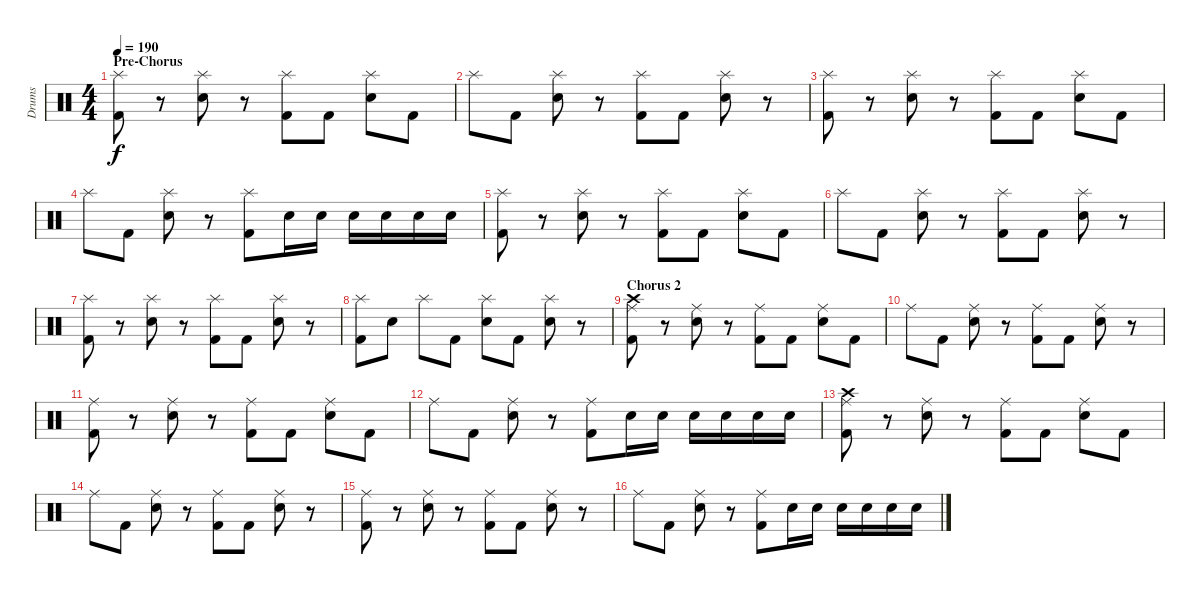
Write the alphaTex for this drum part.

\track ("Drums" "Drums") {instrument percussion}
\staff {score}
\articulation defaults
\ts (4 4)
\section ("" "Pre-Chorus")
\tempo 190
\clef neutral
\ks c
("Splash (hit)" "Kick (hit) 2").8{dy f} r.8 ("Splash (hit)" "Snare (hit) 2").8 r.8 ("Splash (hit)" "Kick (hit) 2").8 "Kick (hit) 2".8 ("Splash (hit)" "Snare (hit) 2").8 "Kick (hit) 2".8 |
"Splash (hit)".8 "Kick (hit) 2".8 ("Splash (hit)" "Snare (hit) 2").8 r.8 ("Splash (hit)" "Kick (hit) 2").8 "Kick (hit) 2".8 ("Splash (hit)" "Snare (hit) 2").8 r.8 |
("Splash (hit)" "Kick (hit) 2").8 r.8 ("Splash (hit)" "Snare (hit) 2").8 r.8 ("Splash (hit)" "Kick (hit) 2").8 "Kick (hit) 2".8 ("Splash (hit)" "Snare (hit) 2").8 "Kick (hit) 2".8 |
"Splash (hit)".8 "Kick (hit) 2".8 ("Splash (hit)" "Snare (hit) 2").8 r.8 ("Splash (hit)" "Kick (hit) 2").8 "Snare (hit) 2".16 "Snare (hit) 2".16 "Snare (hit) 2".16 "Snare (hit) 2".16 "Snare (hit) 2".16 "Snare (hit) 2".16 |
("Splash (hit)" "Kick (hit) 2").8 r.8 ("Splash (hit)" "Snare (hit) 2").8 r.8 ("Splash (hit)" "Kick (hit) 2").8 "Kick (hit) 2".8 ("Splash (hit)" "Snare (hit) 2").8 "Kick (hit) 2".8 |
"Splash (hit)".8 "Kick (hit) 2".8 ("Splash (hit)" "Snare (hit) 2").8 r.8 ("Splash (hit)" "Kick (hit) 2").8 "Kick (hit) 2".8 ("Splash (hit)" "Snare (hit) 2").8 r.8 |
("Splash (hit)" "Kick (hit) 2").8 r.8 ("Splash (hit)" "Snare (hit) 2").8 r.8 ("Splash (hit)" "Kick (hit) 2").8 "Kick (hit) 2".8 ("Splash (hit)" "Snare (hit) 2").8 r.8 |
("Splash (hit)" "Kick (hit) 2").8 "Snare (hit) 2".8 "Splash (hit)".8 "Kick (hit) 2".8 ("Splash (hit)" "Snare (hit) 2").8 "Kick (hit) 2".8 ("Splash (hit)" "Snare (hit) 2").8 r.8 |
\section ("" "Chorus 2")
("Ride (middle)" "Crash high (hit)" "Kick (hit) 2").8 r.8 ("Ride (middle)" "Snare (hit) 2").8 r.8 ("Ride (middle)" "Kick (hit) 2").8 "Kick (hit) 2".8 ("Ride (middle)" "Snare (hit) 2").8 "Kick (hit) 2".8 |
"Ride (middle)".8 "Kick (hit) 2".8 ("Ride (middle)" "Snare (hit) 2").8 r.8 ("Ride (middle)" "Kick (hit) 2").8 "Kick (hit) 2".8 ("Ride (middle)" "Snare (hit) 2").8 r.8 |
("Ride (middle)" "Kick (hit) 2").8 r.8 ("Ride (middle)" "Snare (hit) 2").8 r.8 ("Ride (middle)" "Kick (hit) 2").8 "Kick (hit) 2".8 ("Ride (middle)" "Snare (hit) 2").8 "Kick (hit) 2".8 |
"Ride (middle)".8 "Kick (hit) 2".8 ("Ride (middle)" "Snare (hit) 2").8 r.8 ("Ride (middle)" "Kick (hit) 2").8 "Snare (hit) 2".16 "Snare (hit) 2".16 "Snare (hit) 2".16 "Snare (hit) 2".16 "Snare (hit) 2".16 "Snare (hit) 2".16 |
("Ride (middle)" "Crash high (hit)" "Kick (hit) 2").8 r.8 ("Ride (middle)" "Snare (hit) 2").8 r.8 ("Ride (middle)" "Kick (hit) 2").8 "Kick (hit) 2".8 ("Ride (middle)" "Snare (hit) 2").8 "Kick (hit) 2".8 |
"Ride (middle)".8 "Kick (hit) 2".8 ("Ride (middle)" "Snare (hit) 2").8 r.8 ("Ride (middle)" "Kick (hit) 2").8 "Kick (hit) 2".8 ("Ride (middle)" "Snare (hit) 2").8 r.8 |
("Ride (middle)" "Kick (hit) 2").8 r.8 ("Ride (middle)" "Snare (hit) 2").8 r.8 ("Ride (middle)" "Kick (hit) 2").8 "Kick (hit) 2".8 ("Ride (middle)" "Snare (hit) 2").8 r.8 |
"Ride (middle)".8 "Kick (hit) 2".8 ("Ride (middle)" "Snare (hit) 2").8 r.8 ("Ride (middle)" "Kick (hit) 2").8 "Snare (hit) 2".16 "Snare (hit) 2".16 "Snare (hit) 2".16 "Snare (hit) 2".16 "Snare (hit) 2".16 "Snare (hit) 2".16
